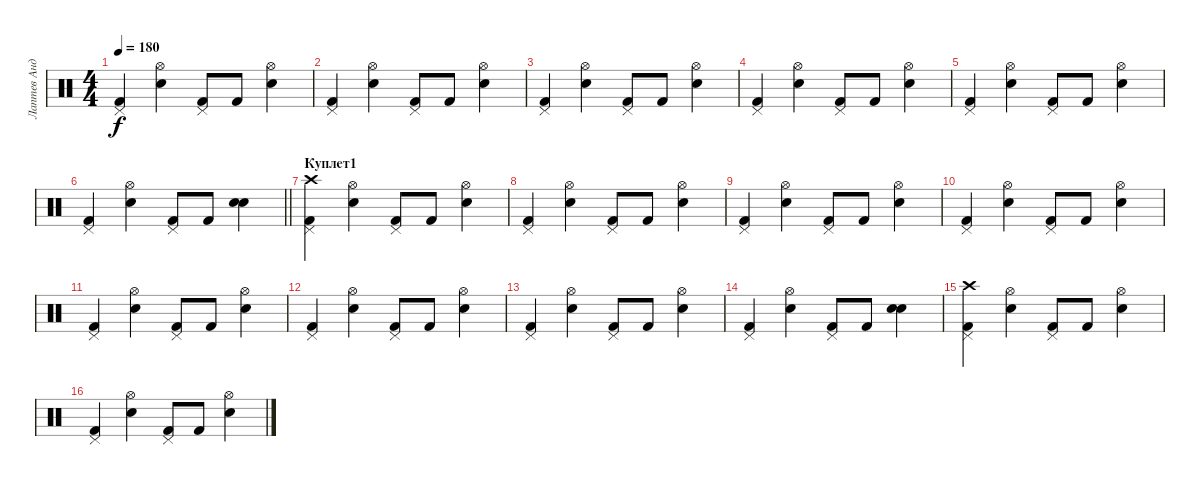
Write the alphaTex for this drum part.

\track ("Лаптев Андрей" "Лаптев Анд") {instrument percussion}
\staff {score}
\articulation defaults
\ts (4 4)
\tempo 180
\clef neutral
\ks c
("Kick (hit) 2" "Pedal Hi-Hat (hit)").4{dy f} ("Snare (hit) 2" "Hi-Hat (open)").4 ("Kick (hit) 2" "Pedal Hi-Hat (hit)").8 "Kick (hit) 2".8 ("Snare (hit) 2" "Hi-Hat (open)").4 |
("Kick (hit) 2" "Pedal Hi-Hat (hit)").4 ("Snare (hit) 2" "Hi-Hat (open)").4 ("Kick (hit) 2" "Pedal Hi-Hat (hit)").8 "Kick (hit) 2".8 ("Snare (hit) 2" "Hi-Hat (open)").4 |
("Kick (hit) 2" "Pedal Hi-Hat (hit)").4 ("Snare (hit) 2" "Hi-Hat (open)").4 ("Kick (hit) 2" "Pedal Hi-Hat (hit)").8 "Kick (hit) 2".8 ("Snare (hit) 2" "Hi-Hat (open)").4 |
("Kick (hit) 2" "Pedal Hi-Hat (hit)").4 ("Snare (hit) 2" "Hi-Hat (open)").4 ("Kick (hit) 2" "Pedal Hi-Hat (hit)").8 "Kick (hit) 2".8 ("Snare (hit) 2" "Hi-Hat (open)").4 |
("Kick (hit) 2" "Pedal Hi-Hat (hit)").4 ("Snare (hit) 2" "Hi-Hat (open)").4 ("Kick (hit) 2" "Pedal Hi-Hat (hit)").8 "Kick (hit) 2".8 ("Snare (hit) 2" "Hi-Hat (open)").4 |
\barLineRight lightlight
("Kick (hit) 2" "Pedal Hi-Hat (hit)").4 ("Snare (hit) 2" "Hi-Hat (open)").4 ("Kick (hit) 2" "Pedal Hi-Hat (hit)").8 "Kick (hit) 2".8 ("Snare (hit) 2" "Electric Snare (hit)").4 |
\section ("" "Куплет1")
("Kick (hit) 2" "Crash high (hit)" "Pedal Hi-Hat (hit)").4 ("Snare (hit) 2" "Hi-Hat (open)").4 ("Kick (hit) 2" "Pedal Hi-Hat (hit)").8 "Kick (hit) 2".8 ("Snare (hit) 2" "Hi-Hat (open)").4 |
("Kick (hit) 2" "Pedal Hi-Hat (hit)").4 ("Snare (hit) 2" "Hi-Hat (open)").4 ("Kick (hit) 2" "Pedal Hi-Hat (hit)").8 "Kick (hit) 2".8 ("Snare (hit) 2" "Hi-Hat (open)").4 |
("Kick (hit) 2" "Pedal Hi-Hat (hit)").4 ("Snare (hit) 2" "Hi-Hat (open)").4 ("Kick (hit) 2" "Pedal Hi-Hat (hit)").8 "Kick (hit) 2".8 ("Snare (hit) 2" "Hi-Hat (open)").4 |
("Kick (hit) 2" "Pedal Hi-Hat (hit)").4 ("Snare (hit) 2" "Hi-Hat (open)").4 ("Kick (hit) 2" "Pedal Hi-Hat (hit)").8 "Kick (hit) 2".8 ("Snare (hit) 2" "Hi-Hat (open)").4 |
("Kick (hit) 2" "Pedal Hi-Hat (hit)").4 ("Snare (hit) 2" "Hi-Hat (open)").4 ("Kick (hit) 2" "Pedal Hi-Hat (hit)").8 "Kick (hit) 2".8 ("Snare (hit) 2" "Hi-Hat (open)").4 |
("Kick (hit) 2" "Pedal Hi-Hat (hit)").4 ("Snare (hit) 2" "Hi-Hat (open)").4 ("Kick (hit) 2" "Pedal Hi-Hat (hit)").8 "Kick (hit) 2".8 ("Snare (hit) 2" "Hi-Hat (open)").4 |
("Kick (hit) 2" "Pedal Hi-Hat (hit)").4 ("Snare (hit) 2" "Hi-Hat (open)").4 ("Kick (hit) 2" "Pedal Hi-Hat (hit)").8 "Kick (hit) 2".8 ("Snare (hit) 2" "Hi-Hat (open)").4 |
("Kick (hit) 2" "Pedal Hi-Hat (hit)").4 ("Snare (hit) 2" "Hi-Hat (open)").4 ("Kick (hit) 2" "Pedal Hi-Hat (hit)").8 "Kick (hit) 2".8 ("Snare (hit) 2" "Electric Snare (hit)").4 |
("Kick (hit) 2" "Crash high (hit)" "Pedal Hi-Hat (hit)").4 ("Snare (hit) 2" "Hi-Hat (open)").4 ("Kick (hit) 2" "Pedal Hi-Hat (hit)").8 "Kick (hit) 2".8 ("Snare (hit) 2" "Hi-Hat (open)").4 |
("Kick (hit) 2" "Pedal Hi-Hat (hit)").4 ("Snare (hit) 2" "Hi-Hat (open)").4 ("Kick (hit) 2" "Pedal Hi-Hat (hit)").8 "Kick (hit) 2".8 ("Snare (hit) 2" "Hi-Hat (open)").4
